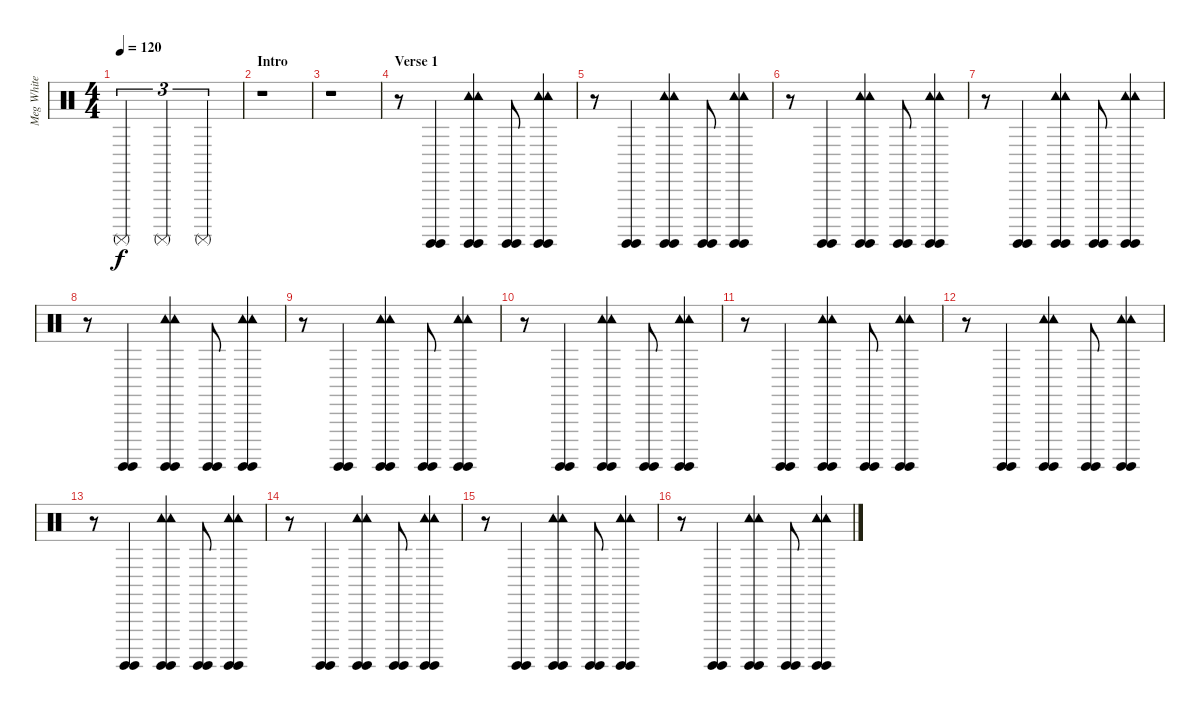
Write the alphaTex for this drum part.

\track ("Meg White" "Meg White") {instrument percussion}
\staff {score}
\articulation defaults
\ts (4 4)
\tempo 120
\clef neutral
\ks c "Surdo (mute)".2{tu (3 2) dy f} "Surdo (mute)".2{tu (3 2)} "Surdo (mute)".2{tu (3 2)}
|
\section ("" "Intro")
r.1 |
r.1 |
\section ("" "Verse 1")
r.8 ("Surdo (hit)" "Surdo (hit)").4 ("Surdo (hit)" "Surdo (hit)" "Tambourine (hit)" "Tambourine (hit)").4 ("Surdo (hit)" "Surdo (hit)").8 ("Surdo (hit)" "Surdo (hit)" "Tambourine (hit)" "Tambourine (hit)").4 |
r.8 ("Surdo (hit)" "Surdo (hit)").4 ("Surdo (hit)" "Surdo (hit)" "Tambourine (hit)" "Tambourine (hit)").4 ("Surdo (hit)" "Surdo (hit)").8 ("Surdo (hit)" "Surdo (hit)" "Tambourine (hit)" "Tambourine (hit)").4 |
r.8 ("Surdo (hit)" "Surdo (hit)").4 ("Surdo (hit)" "Surdo (hit)" "Tambourine (hit)" "Tambourine (hit)").4 ("Surdo (hit)" "Surdo (hit)").8 ("Surdo (hit)" "Surdo (hit)" "Tambourine (hit)" "Tambourine (hit)").4 |
r.8 ("Surdo (hit)" "Surdo (hit)").4 ("Surdo (hit)" "Surdo (hit)" "Tambourine (hit)" "Tambourine (hit)").4 ("Surdo (hit)" "Surdo (hit)").8 ("Surdo (hit)" "Surdo (hit)" "Tambourine (hit)" "Tambourine (hit)").4 |
r.8 ("Surdo (hit)" "Surdo (hit)").4 ("Surdo (hit)" "Surdo (hit)" "Tambourine (hit)" "Tambourine (hit)").4 ("Surdo (hit)" "Surdo (hit)").8 ("Surdo (hit)" "Surdo (hit)" "Tambourine (hit)" "Tambourine (hit)").4 |
r.8 ("Surdo (hit)" "Surdo (hit)").4 ("Surdo (hit)" "Surdo (hit)" "Tambourine (hit)" "Tambourine (hit)").4 ("Surdo (hit)" "Surdo (hit)").8 ("Surdo (hit)" "Surdo (hit)" "Tambourine (hit)" "Tambourine (hit)").4 |
r.8 ("Surdo (hit)" "Surdo (hit)").4 ("Surdo (hit)" "Surdo (hit)" "Tambourine (hit)" "Tambourine (hit)").4 ("Surdo (hit)" "Surdo (hit)").8 ("Surdo (hit)" "Surdo (hit)" "Tambourine (hit)" "Tambourine (hit)").4 |
r.8 ("Surdo (hit)" "Surdo (hit)").4 ("Surdo (hit)" "Surdo (hit)" "Tambourine (hit)" "Tambourine (hit)").4 ("Surdo (hit)" "Surdo (hit)").8 ("Surdo (hit)" "Surdo (hit)" "Tambourine (hit)" "Tambourine (hit)").4 |
r.8 ("Surdo (hit)" "Surdo (hit)").4 ("Surdo (hit)" "Surdo (hit)" "Tambourine (hit)" "Tambourine (hit)").4 ("Surdo (hit)" "Surdo (hit)").8 ("Surdo (hit)" "Surdo (hit)" "Tambourine (hit)" "Tambourine (hit)").4 |
r.8 ("Surdo (hit)" "Surdo (hit)").4 ("Surdo (hit)" "Surdo (hit)" "Tambourine (hit)" "Tambourine (hit)").4 ("Surdo (hit)" "Surdo (hit)").8 ("Surdo (hit)" "Surdo (hit)" "Tambourine (hit)" "Tambourine (hit)").4 |
r.8 ("Surdo (hit)" "Surdo (hit)").4 ("Surdo (hit)" "Surdo (hit)" "Tambourine (hit)" "Tambourine (hit)").4 ("Surdo (hit)" "Surdo (hit)").8 ("Surdo (hit)" "Surdo (hit)" "Tambourine (hit)" "Tambourine (hit)").4 |
r.8 ("Surdo (hit)" "Surdo (hit)").4 ("Surdo (hit)" "Surdo (hit)" "Tambourine (hit)" "Tambourine (hit)").4 ("Surdo (hit)" "Surdo (hit)").8 ("Surdo (hit)" "Surdo (hit)" "Tambourine (hit)" "Tambourine (hit)").4 |
r.8 ("Surdo (hit)" "Surdo (hit)").4 ("Surdo (hit)" "Surdo (hit)" "Tambourine (hit)" "Tambourine (hit)").4 ("Surdo (hit)" "Surdo (hit)").8 ("Surdo (hit)" "Surdo (hit)" "Tambourine (hit)" "Tambourine (hit)").4
